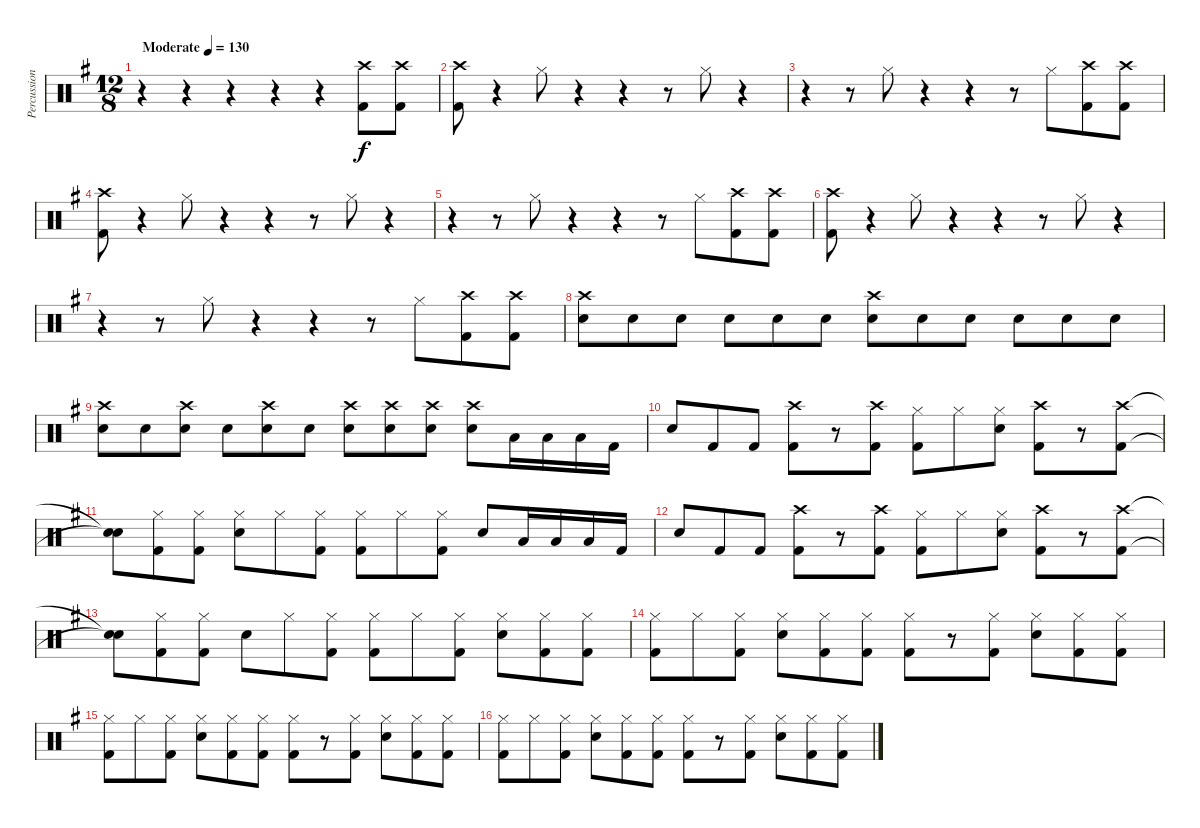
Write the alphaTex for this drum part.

\track ("Percussion" "Percussion") {instrument percussion}
\staff {score}
\articulation defaults
\ts (12 8)
\tempo (130 "Moderate")
\clef neutral
\ks g
r.4{dy f} r.4 r.4 r.4 r.4 ("Crash high (hit)" "Kick (hit) 2").8 ("Crash high (hit)" "Kick (hit) 2").8 |
("Crash high (hit)" "Kick (hit) 2").8 r.4 "Hi-Hat (closed)".8 r.4 r.4 r.8 "Hi-Hat (closed)".8 r.4 |
r.4 r.8 "Hi-Hat (closed)".8 r.4 r.4 r.8 "Hi-Hat (closed)".8 ("Crash high (hit)" "Kick (hit) 2").8 ("Crash high (hit)" "Kick (hit) 2").8 |
("Crash high (hit)" "Kick (hit) 2").8 r.4 "Hi-Hat (closed)".8 r.4 r.4 r.8 "Hi-Hat (closed)".8 r.4 |
r.4 r.8 "Hi-Hat (closed)".8 r.4 r.4 r.8 "Hi-Hat (closed)".8 ("Crash high (hit)" "Kick (hit) 2").8 ("Crash high (hit)" "Kick (hit) 2").8 |
("Crash high (hit)" "Kick (hit) 2").8 r.4 "Hi-Hat (closed)".8 r.4 r.4 r.8 "Hi-Hat (closed)".8 r.4 |
r.4 r.8 "Hi-Hat (closed)".8 r.4 r.4 r.8 "Hi-Hat (closed)".8 ("Crash high (hit)" "Kick (hit) 2").8 ("Crash high (hit)" "Kick (hit) 2").8 |
("Crash high (hit)" "Snare (hit) 2").8 "Snare (hit) 2".8 "Snare (hit) 2".8 "Snare (hit) 2".8 "Snare (hit) 2".8 "Snare (hit) 2".8 ("Crash high (hit)" "Snare (hit) 2").8 "Snare (hit) 2".8 "Snare (hit) 2".8 "Snare (hit) 2".8 "Snare (hit) 2".8 "Snare (hit) 2".8 |
("Crash high (hit)" "Snare (hit) 2").8 "Snare (hit) 2".8 ("Crash high (hit)" "Snare (hit) 2").8 "Snare (hit) 2".8 ("Crash high (hit)" "Snare (hit) 2").8 "Snare (hit) 2".8 ("Crash high (hit)" "Snare (hit) 2").8 ("Crash high (hit)" "Snare (hit) 2").8 ("Crash high (hit)" "Snare (hit) 2").8 ("Crash high (hit)" "Snare (hit) 2").8 "Low Floor Tom (hit)".16 "Low Floor Tom (hit)".16 "Low Floor Tom (hit)".16 "Kick (hit) 2".16 |
"Snare (hit) 2".8 "Kick (hit) 2".8 "Kick (hit) 2".8 ("Crash high (hit)" "Kick (hit) 2").8 r.8 ("Crash high (hit)" "Kick (hit) 2").8 ("Hi-Hat (closed)" "Kick (hit) 2").8 "Hi-Hat (closed)".8 ("Hi-Hat (closed)" "Snare (hit) 2").8 ("Crash high (hit)" "Kick (hit) 2").8 r.8 ("Crash high (hit)" "Kick (hit) 2").8 |
("Snare (hit)"{t} "Snare (hit)"{t}).8 ("Hi-Hat (closed)" "Kick (hit) 2").8 ("Hi-Hat (closed)" "Kick (hit) 2").8 ("Hi-Hat (closed)" "Snare (hit) 2").8 "Hi-Hat (closed)".8 ("Hi-Hat (closed)" "Kick (hit) 2").8 ("Hi-Hat (closed)" "Kick (hit) 2").8 "Hi-Hat (closed)".8 ("Hi-Hat (closed)" "Kick (hit) 2").8 "Snare (hit) 2".8 "Low Floor Tom (hit)".16 "Low Floor Tom (hit)".16 "Low Floor Tom (hit)".16 "Kick (hit) 2".16 |
"Snare (hit) 2".8 "Kick (hit) 2".8 "Kick (hit) 2".8 ("Crash high (hit)" "Kick (hit) 2").8 r.8 ("Crash high (hit)" "Kick (hit) 2").8 ("Hi-Hat (closed)" "Kick (hit) 2").8 "Hi-Hat (closed)".8 ("Hi-Hat (closed)" "Snare (hit) 2").8 ("Crash high (hit)" "Kick (hit) 2").8 r.8 ("Crash high (hit)" "Kick (hit) 2").8 |
("Snare (hit)"{t} "Snare (hit)"{t}).8 ("Hi-Hat (closed)" "Kick (hit) 2").8 ("Hi-Hat (closed)" "Kick (hit) 2").8 "Snare (hit) 2".8 "Hi-Hat (closed)".8 ("Hi-Hat (closed)" "Kick (hit) 2").8 ("Hi-Hat (closed)" "Kick (hit) 2").8 "Hi-Hat (closed)".8 ("Hi-Hat (closed)" "Kick (hit) 2").8 ("Hi-Hat (closed)" "Snare (hit) 2").8 ("Hi-Hat (closed)" "Kick (hit) 2").8 ("Hi-Hat (closed)" "Kick (hit) 2").8 |
("Hi-Hat (closed)" "Kick (hit) 2").8 "Hi-Hat (closed)".8 ("Hi-Hat (closed)" "Kick (hit) 2").8 ("Hi-Hat (closed)" "Snare (hit) 2").8 ("Hi-Hat (closed)" "Kick (hit) 2").8 ("Hi-Hat (closed)" "Kick (hit) 2").8 ("Hi-Hat (closed)" "Kick (hit) 2").8 r.8 ("Hi-Hat (closed)" "Kick (hit) 2").8 ("Hi-Hat (closed)" "Snare (hit) 2").8 ("Hi-Hat (closed)" "Kick (hit) 2").8 ("Hi-Hat (closed)" "Kick (hit) 2").8 |
("Hi-Hat (closed)" "Kick (hit) 2").8 "Hi-Hat (closed)".8 ("Hi-Hat (closed)" "Kick (hit) 2").8 ("Hi-Hat (closed)" "Snare (hit) 2").8 ("Hi-Hat (closed)" "Kick (hit) 2").8 ("Hi-Hat (closed)" "Kick (hit) 2").8 ("Hi-Hat (closed)" "Kick (hit) 2").8 r.8 ("Hi-Hat (closed)" "Kick (hit) 2").8 ("Hi-Hat (closed)" "Snare (hit) 2").8 ("Hi-Hat (closed)" "Kick (hit) 2").8 ("Hi-Hat (closed)" "Kick (hit) 2").8 |
("Hi-Hat (closed)" "Kick (hit) 2").8 "Hi-Hat (closed)".8 ("Hi-Hat (closed)" "Kick (hit) 2").8 ("Hi-Hat (closed)" "Snare (hit) 2").8 ("Hi-Hat (closed)" "Kick (hit) 2").8 ("Hi-Hat (closed)" "Kick (hit) 2").8 ("Hi-Hat (closed)" "Kick (hit) 2").8 r.8 ("Hi-Hat (closed)" "Kick (hit) 2").8 ("Hi-Hat (closed)" "Snare (hit) 2").8 ("Hi-Hat (closed)" "Kick (hit) 2").8 ("Hi-Hat (closed)" "Kick (hit) 2").8
